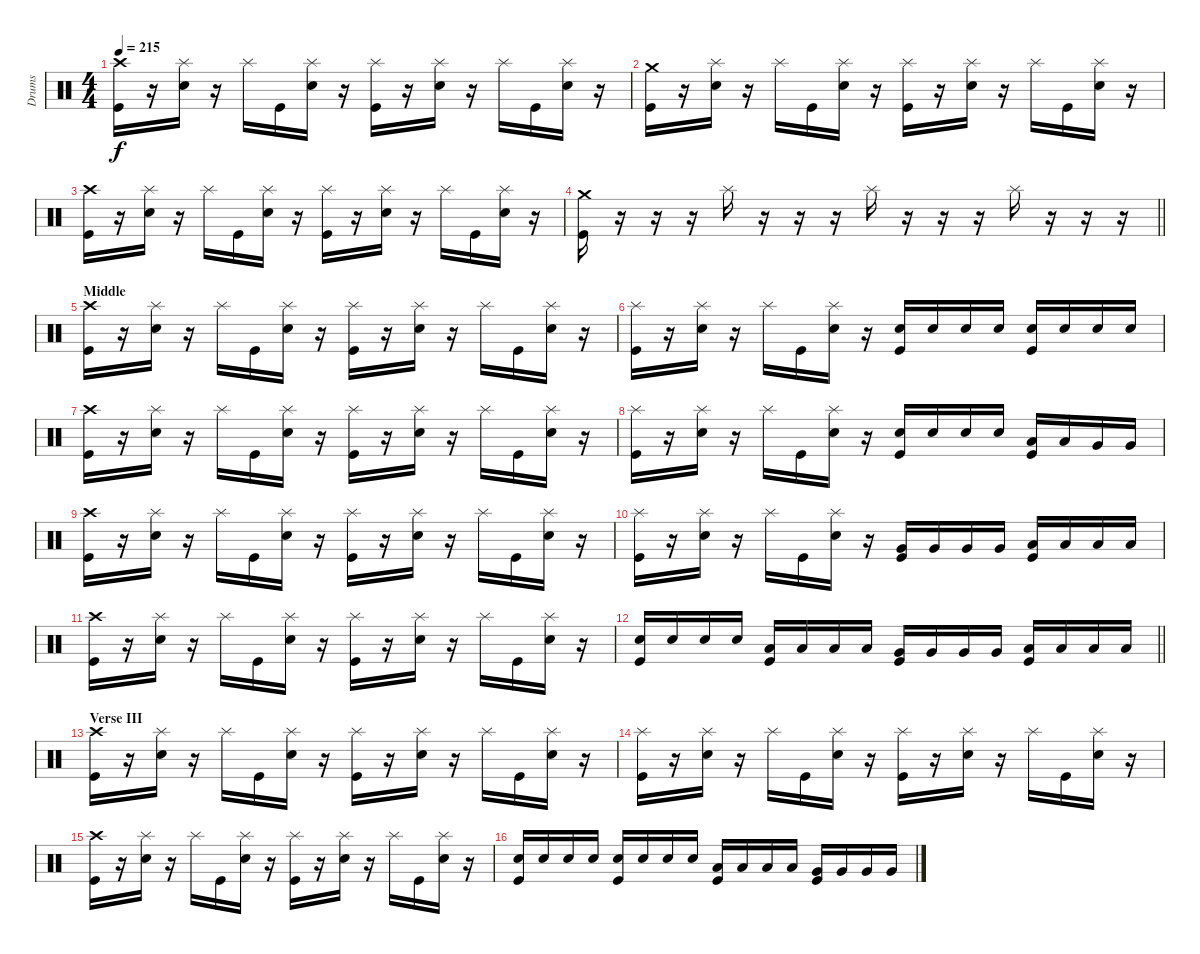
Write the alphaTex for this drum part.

\track ("Drums" "Drums") {instrument percussion}
\staff {score}
\articulation defaults
\ts (4 4)
\tempo 215
\clef neutral
\ks c
("Crash high (hit)" "Kick (hit)").16{dy f} r.16 ("Splash (hit)" "Electric Snare (hit)").16 r.16 "Splash (hit)".16 "Kick (hit)".16 ("Splash (hit)" "Electric Snare (hit)").16 r.16 ("Splash (hit)" "Kick (hit)").16 r.16 ("Splash (hit)" "Electric Snare (hit)").16 r.16 "Splash (hit)".16 "Kick (hit)".16 ("Splash (hit)" "Electric Snare (hit)").16 r.16 |
("Crash medium (hit)" "Kick (hit)").16 r.16 ("Splash (hit)" "Electric Snare (hit)").16 r.16 "Splash (hit)".16 "Kick (hit)".16 ("Splash (hit)" "Electric Snare (hit)").16 r.16 ("Splash (hit)" "Kick (hit)").16 r.16 ("Splash (hit)" "Electric Snare (hit)").16 r.16 "Splash (hit)".16 "Kick (hit)".16 ("Splash (hit)" "Electric Snare (hit)").16 r.16 |
("Crash high (hit)" "Kick (hit)").16 r.16 ("Splash (hit)" "Electric Snare (hit)").16 r.16 "Splash (hit)".16 "Kick (hit)".16 ("Splash (hit)" "Electric Snare (hit)").16 r.16 ("Splash (hit)" "Kick (hit)").16 r.16 ("Splash (hit)" "Electric Snare (hit)").16 r.16 "Splash (hit)".16 "Kick (hit)".16 ("Splash (hit)" "Electric Snare (hit)").16 r.16 |
\barLineRight lightlight
("Crash medium (hit)" "Kick (hit)").16 r.16 r.16 r.16 "Splash (hit)".16 r.16 r.16 r.16 "Splash (hit)".16 r.16 r.16 r.16 "Splash (hit)".16 r.16 r.16 r.16 |
\section ("" "Middle")
("Crash high (hit)" "Kick (hit)").16 r.16 ("Splash (hit)" "Electric Snare (hit)").16 r.16 "Splash (hit)".16 "Kick (hit)".16 ("Splash (hit)" "Electric Snare (hit)").16 r.16 ("Splash (hit)" "Kick (hit)").16 r.16 ("Splash (hit)" "Electric Snare (hit)").16 r.16 "Splash (hit)".16 "Kick (hit)".16 ("Splash (hit)" "Electric Snare (hit)").16 r.16 |
("Splash (hit)" "Kick (hit)").16 r.16 ("Splash (hit)" "Electric Snare (hit)").16 r.16 "Splash (hit)".16 "Kick (hit)".16 ("Splash (hit)" "Electric Snare (hit)").16 r.16 ("Electric Snare (hit)" "Kick (hit)").16 "Electric Snare (hit)".16 "Electric Snare (hit)".16 "Electric Snare (hit)".16 ("Electric Snare (hit)" "Kick (hit)").16 "Electric Snare (hit)".16 "Electric Snare (hit)".16 "Electric Snare (hit)".16 |
("Crash high (hit)" "Kick (hit)").16 r.16 ("Splash (hit)" "Electric Snare (hit)").16 r.16 "Splash (hit)".16 "Kick (hit)".16 ("Splash (hit)" "Electric Snare (hit)").16 r.16 ("Splash (hit)" "Kick (hit)").16 r.16 ("Splash (hit)" "Electric Snare (hit)").16 r.16 "Splash (hit)".16 "Kick (hit)".16 ("Splash (hit)" "Electric Snare (hit)").16 r.16 |
("Splash (hit)" "Kick (hit)").16 r.16 ("Splash (hit)" "Electric Snare (hit)").16 r.16 "Splash (hit)".16 "Kick (hit)".16 ("Splash (hit)" "Electric Snare (hit)").16 r.16 ("Electric Snare (hit)" "Kick (hit)").16 "Electric Snare (hit)".16 "Electric Snare (hit)".16 "Electric Snare (hit)".16 ("Low Tom (hit)" "Kick (hit)").16 "Low Tom (hit)".16 "Very Low Tom (hit)".16 "Very Low Tom (hit)".16 |
("Crash high (hit)" "Kick (hit)").16 r.16 ("Splash (hit)" "Electric Snare (hit)").16 r.16 "Splash (hit)".16 "Kick (hit)".16 ("Splash (hit)" "Electric Snare (hit)").16 r.16 ("Splash (hit)" "Kick (hit)").16 r.16 ("Splash (hit)" "Electric Snare (hit)").16 r.16 "Splash (hit)".16 "Kick (hit)".16 ("Splash (hit)" "Electric Snare (hit)").16 r.16 |
("Splash (hit)" "Kick (hit)").16 r.16 ("Splash (hit)" "Electric Snare (hit)").16 r.16 "Splash (hit)".16 "Kick (hit)".16 ("Splash (hit)" "Electric Snare (hit)").16 r.16 ("Very Low Tom (hit)" "Kick (hit)").16 "Very Low Tom (hit)".16 "Very Low Tom (hit)".16 "Very Low Tom (hit)".16 ("Low Floor Tom (hit)" "Kick (hit)").16 "Low Floor Tom (hit)".16 "Low Floor Tom (hit)".16 "Low Floor Tom (hit)".16 |
("Crash high (hit)" "Kick (hit)").16 r.16 ("Splash (hit)" "Electric Snare (hit)").16 r.16 "Splash (hit)".16 "Kick (hit)".16 ("Splash (hit)" "Electric Snare (hit)").16 r.16 ("Splash (hit)" "Kick (hit)").16 r.16 ("Splash (hit)" "Electric Snare (hit)").16 r.16 "Splash (hit)".16 "Kick (hit)".16 ("Splash (hit)" "Electric Snare (hit)").16 r.16 |
\barLineRight lightlight
("Electric Snare (hit)" "Kick (hit)").16 "Electric Snare (hit)".16 "Electric Snare (hit)".16 "Electric Snare (hit)".16 ("Low Tom (hit)" "Kick (hit)").16 "Low Tom (hit)".16 "Low Tom (hit)".16 "Low Tom (hit)".16 ("Very Low Tom (hit)" "Kick (hit)").16 "Very Low Tom (hit)".16 "Very Low Tom (hit)".16 "Very Low Tom (hit)".16 ("Low Floor Tom (hit)" "Kick (hit)").16 "Low Floor Tom (hit)".16 "Low Floor Tom (hit)".16 "Low Floor Tom (hit)".16 |
\section ("" "Verse III")
("Crash high (hit)" "Kick (hit)").16 r.16 ("Splash (hit)" "Electric Snare (hit)").16 r.16 "Splash (hit)".16 "Kick (hit)".16 ("Splash (hit)" "Electric Snare (hit)").16 r.16 ("Splash (hit)" "Kick (hit)").16 r.16 ("Splash (hit)" "Electric Snare (hit)").16 r.16 "Splash (hit)".16 "Kick (hit)".16 ("Splash (hit)" "Electric Snare (hit)").16 r.16 |
("Splash (hit)" "Kick (hit)").16 r.16 ("Splash (hit)" "Electric Snare (hit)").16 r.16 "Splash (hit)".16 "Kick (hit)".16 ("Splash (hit)" "Electric Snare (hit)").16 r.16 ("Splash (hit)" "Kick (hit)").16 r.16 ("Splash (hit)" "Electric Snare (hit)").16 r.16 "Splash (hit)".16 "Kick (hit)".16 ("Splash (hit)" "Electric Snare (hit)").16 r.16 |
("Crash high (hit)" "Kick (hit)").16 r.16 ("Splash (hit)" "Electric Snare (hit)").16 r.16 "Splash (hit)".16 "Kick (hit)".16 ("Splash (hit)" "Electric Snare (hit)").16 r.16 ("Splash (hit)" "Kick (hit)").16 r.16 ("Splash (hit)" "Electric Snare (hit)").16 r.16 "Splash (hit)".16 "Kick (hit)".16 ("Splash (hit)" "Electric Snare (hit)").16 r.16 |
("Electric Snare (hit)" "Kick (hit)").16 "Electric Snare (hit)".16 "Electric Snare (hit)".16 "Electric Snare (hit)".16 ("Electric Snare (hit)" "Kick (hit)").16 "Electric Snare (hit)".16 "Electric Snare (hit)".16 "Electric Snare (hit)".16 ("Low Tom (hit)" "Kick (hit)").16 "Low Tom (hit)".16 "Low Tom (hit)".16 "Low Tom (hit)".16 ("Very Low Tom (hit)" "Kick (hit)").16 "Very Low Tom (hit)".16 "Very Low Tom (hit)".16 "Very Low Tom (hit)".16
